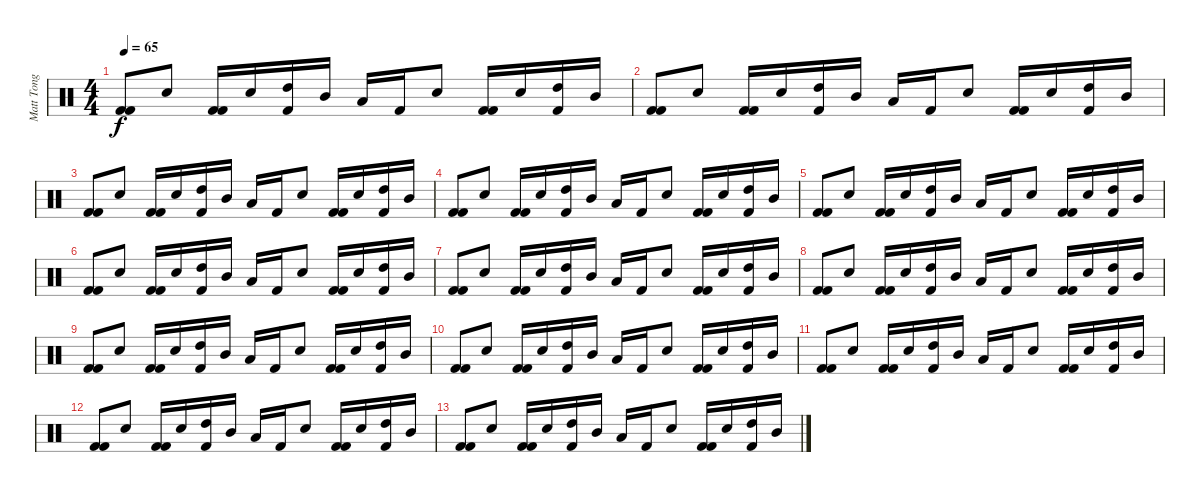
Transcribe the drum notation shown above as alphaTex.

\track ("Matt Tong" "Matt Tong") {instrument percussion}
\staff {score}
\articulation defaults
\ts (4 4)
\tempo 65
\clef neutral
\ks c
("Kick (hit) 2" "Kick (hit) 2").8{dy f} "Snare (hit) 2".8 ("Kick (hit) 2" "Kick (hit) 2").16 "Snare (hit) 2".16 ("High Tom (hit)" "Kick (hit) 2").16 "Mid Tom (hit)".16 "Low Tom (hit)".16 "Kick (hit) 2".16 "Snare (hit) 2".8 ("Kick (hit) 2" "Kick (hit) 2").16 "Snare (hit) 2".16 ("High Tom (hit)" "Kick (hit) 2").16 "Mid Tom (hit)".16 |
("Kick (hit) 2" "Kick (hit) 2").8 "Snare (hit) 2".8 ("Kick (hit) 2" "Kick (hit) 2").16 "Snare (hit) 2".16 ("High Tom (hit)" "Kick (hit) 2").16 "Mid Tom (hit)".16 "Low Tom (hit)".16 "Kick (hit) 2".16 "Snare (hit) 2".8 ("Kick (hit) 2" "Kick (hit) 2").16 "Snare (hit) 2".16 ("High Tom (hit)" "Kick (hit) 2").16 "Mid Tom (hit)".16 |
("Kick (hit) 2" "Kick (hit) 2").8 "Snare (hit) 2".8 ("Kick (hit) 2" "Kick (hit) 2").16 "Snare (hit) 2".16 ("High Tom (hit)" "Kick (hit) 2").16 "Mid Tom (hit)".16 "Low Tom (hit)".16 "Kick (hit) 2".16 "Snare (hit) 2".8 ("Kick (hit) 2" "Kick (hit) 2").16 "Snare (hit) 2".16 ("High Tom (hit)" "Kick (hit) 2").16 "Mid Tom (hit)".16 |
("Kick (hit) 2" "Kick (hit) 2").8 "Snare (hit) 2".8 ("Kick (hit) 2" "Kick (hit) 2").16 "Snare (hit) 2".16 ("High Tom (hit)" "Kick (hit) 2").16 "Mid Tom (hit)".16 "Low Tom (hit)".16 "Kick (hit) 2".16 "Snare (hit) 2".8 ("Kick (hit) 2" "Kick (hit) 2").16 "Snare (hit) 2".16 ("High Tom (hit)" "Kick (hit) 2").16 "Mid Tom (hit)".16 |
("Kick (hit) 2" "Kick (hit) 2").8 "Snare (hit) 2".8 ("Kick (hit) 2" "Kick (hit) 2").16 "Snare (hit) 2".16 ("High Tom (hit)" "Kick (hit) 2").16 "Mid Tom (hit)".16 "Low Tom (hit)".16 "Kick (hit) 2".16 "Snare (hit) 2".8 ("Kick (hit) 2" "Kick (hit) 2").16 "Snare (hit) 2".16 ("High Tom (hit)" "Kick (hit) 2").16 "Mid Tom (hit)".16 |
("Kick (hit) 2" "Kick (hit) 2").8 "Snare (hit) 2".8 ("Kick (hit) 2" "Kick (hit) 2").16 "Snare (hit) 2".16 ("High Tom (hit)" "Kick (hit) 2").16 "Mid Tom (hit)".16 "Low Tom (hit)".16 "Kick (hit) 2".16 "Snare (hit) 2".8 ("Kick (hit) 2" "Kick (hit) 2").16 "Snare (hit) 2".16 ("High Tom (hit)" "Kick (hit) 2").16 "Mid Tom (hit)".16 |
("Kick (hit) 2" "Kick (hit) 2").8 "Snare (hit) 2".8 ("Kick (hit) 2" "Kick (hit) 2").16 "Snare (hit) 2".16 ("High Tom (hit)" "Kick (hit) 2").16 "Mid Tom (hit)".16 "Low Tom (hit)".16 "Kick (hit) 2".16 "Snare (hit) 2".8 ("Kick (hit) 2" "Kick (hit) 2").16 "Snare (hit) 2".16 ("High Tom (hit)" "Kick (hit) 2").16 "Mid Tom (hit)".16 |
("Kick (hit) 2" "Kick (hit) 2").8 "Snare (hit) 2".8 ("Kick (hit) 2" "Kick (hit) 2").16 "Snare (hit) 2".16 ("High Tom (hit)" "Kick (hit) 2").16 "Mid Tom (hit)".16 "Low Tom (hit)".16 "Kick (hit) 2".16 "Snare (hit) 2".8 ("Kick (hit) 2" "Kick (hit) 2").16 "Snare (hit) 2".16 ("High Tom (hit)" "Kick (hit) 2").16 "Mid Tom (hit)".16 |
("Kick (hit) 2" "Kick (hit) 2").8 "Snare (hit) 2".8 ("Kick (hit) 2" "Kick (hit) 2").16 "Snare (hit) 2".16 ("High Tom (hit)" "Kick (hit) 2").16 "Mid Tom (hit)".16 "Low Tom (hit)".16 "Kick (hit) 2".16 "Snare (hit) 2".8 ("Kick (hit) 2" "Kick (hit) 2").16 "Snare (hit) 2".16 ("High Tom (hit)" "Kick (hit) 2").16 "Mid Tom (hit)".16 |
("Kick (hit) 2" "Kick (hit) 2").8 "Snare (hit) 2".8 ("Kick (hit) 2" "Kick (hit) 2").16 "Snare (hit) 2".16 ("High Tom (hit)" "Kick (hit) 2").16 "Mid Tom (hit)".16 "Low Tom (hit)".16 "Kick (hit) 2".16 "Snare (hit) 2".8 ("Kick (hit) 2" "Kick (hit) 2").16 "Snare (hit) 2".16 ("High Tom (hit)" "Kick (hit) 2").16 "Mid Tom (hit)".16 |
("Kick (hit) 2" "Kick (hit) 2").8 "Snare (hit) 2".8 ("Kick (hit) 2" "Kick (hit) 2").16 "Snare (hit) 2".16 ("High Tom (hit)" "Kick (hit) 2").16 "Mid Tom (hit)".16 "Low Tom (hit)".16 "Kick (hit) 2".16 "Snare (hit) 2".8 ("Kick (hit) 2" "Kick (hit) 2").16 "Snare (hit) 2".16 ("High Tom (hit)" "Kick (hit) 2").16 "Mid Tom (hit)".16 |
("Kick (hit) 2" "Kick (hit) 2").8 "Snare (hit) 2".8 ("Kick (hit) 2" "Kick (hit) 2").16 "Snare (hit) 2".16 ("High Tom (hit)" "Kick (hit) 2").16 "Mid Tom (hit)".16 "Low Tom (hit)".16 "Kick (hit) 2".16 "Snare (hit) 2".8 ("Kick (hit) 2" "Kick (hit) 2").16 "Snare (hit) 2".16 ("High Tom (hit)" "Kick (hit) 2").16 "Mid Tom (hit)".16 |
("Kick (hit) 2" "Kick (hit) 2").8 "Snare (hit) 2".8 ("Kick (hit) 2" "Kick (hit) 2").16 "Snare (hit) 2".16 ("High Tom (hit)" "Kick (hit) 2").16 "Mid Tom (hit)".16 "Low Tom (hit)".16 "Kick (hit) 2".16 "Snare (hit) 2".8 ("Kick (hit) 2" "Kick (hit) 2").16 "Snare (hit) 2".16 ("High Tom (hit)" "Kick (hit) 2").16 "Mid Tom (hit)".16
